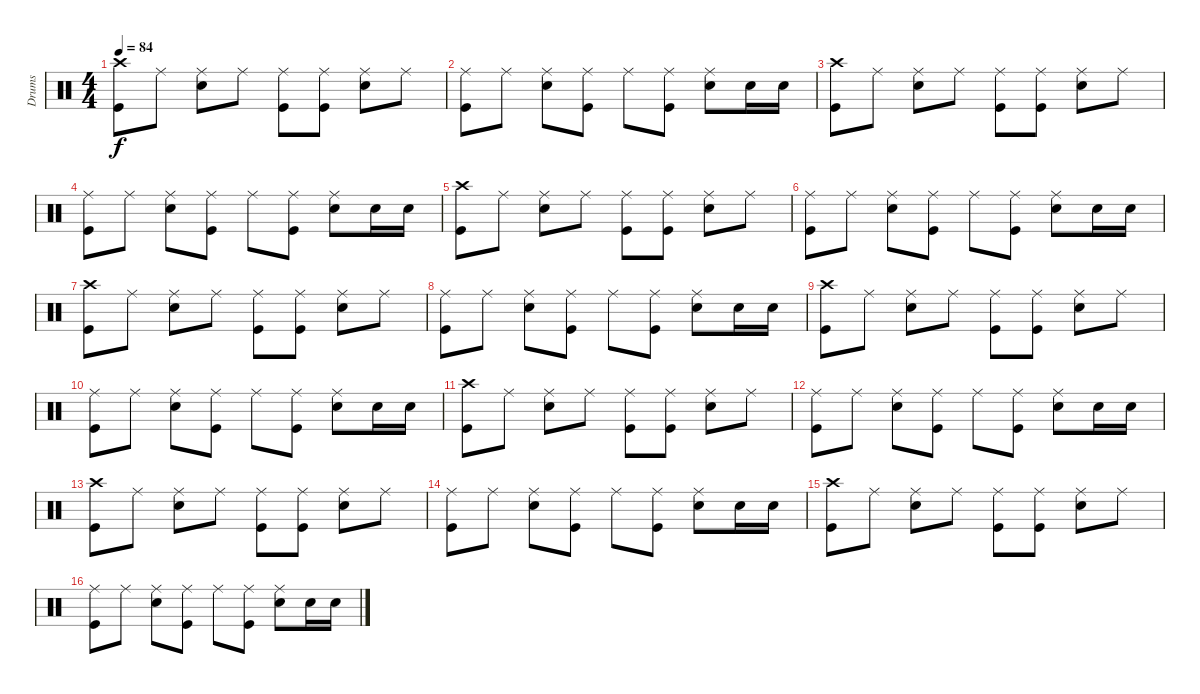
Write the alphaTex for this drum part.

\track ("Drums" "Drums") {instrument percussion}
\staff {score}
\articulation defaults
\ts (4 4)
\tempo 84
\clef neutral
\ks c
("Crash high (hit)" "Kick (hit)").8{dy f} "Ride (middle)".8 ("Ride (middle)" "Snare (hit) 2").8 "Ride (middle)".8 ("Ride (middle)" "Kick (hit)").8 ("Ride (middle)" "Kick (hit)").8 ("Ride (middle)" "Snare (hit) 2").8 "Ride (middle)".8 |
("Ride (middle)" "Kick (hit)").8 "Ride (middle)".8 ("Ride (middle)" "Snare (hit) 2").8 ("Ride (middle)" "Kick (hit)").8 "Ride (middle)".8 ("Ride (middle)" "Kick (hit)").8 ("Ride (middle)" "Snare (hit) 2").8 "Snare (hit) 2".16 "Snare (hit) 2".16 |
("Crash high (hit)" "Kick (hit)").8 "Ride (middle)".8 ("Ride (middle)" "Snare (hit) 2").8 "Ride (middle)".8 ("Ride (middle)" "Kick (hit)").8 ("Ride (middle)" "Kick (hit)").8 ("Ride (middle)" "Snare (hit) 2").8 "Ride (middle)".8 |
("Ride (middle)" "Kick (hit)").8 "Ride (middle)".8 ("Ride (middle)" "Snare (hit) 2").8 ("Ride (middle)" "Kick (hit)").8 "Ride (middle)".8 ("Ride (middle)" "Kick (hit)").8 ("Ride (middle)" "Snare (hit) 2").8 "Snare (hit) 2".16 "Snare (hit) 2".16 |
("Crash high (hit)" "Kick (hit)").8 "Ride (middle)".8 ("Ride (middle)" "Snare (hit) 2").8 "Ride (middle)".8 ("Ride (middle)" "Kick (hit)").8 ("Ride (middle)" "Kick (hit)").8 ("Ride (middle)" "Snare (hit) 2").8 "Ride (middle)".8 |
("Ride (middle)" "Kick (hit)").8 "Ride (middle)".8 ("Ride (middle)" "Snare (hit) 2").8 ("Ride (middle)" "Kick (hit)").8 "Ride (middle)".8 ("Ride (middle)" "Kick (hit)").8 ("Ride (middle)" "Snare (hit) 2").8 "Snare (hit) 2".16 "Snare (hit) 2".16 |
("Crash high (hit)" "Kick (hit)").8 "Ride (middle)".8 ("Ride (middle)" "Snare (hit) 2").8 "Ride (middle)".8 ("Ride (middle)" "Kick (hit)").8 ("Ride (middle)" "Kick (hit)").8 ("Ride (middle)" "Snare (hit) 2").8 "Ride (middle)".8 |
("Ride (middle)" "Kick (hit)").8 "Ride (middle)".8 ("Ride (middle)" "Snare (hit) 2").8 ("Ride (middle)" "Kick (hit)").8 "Ride (middle)".8 ("Ride (middle)" "Kick (hit)").8 ("Ride (middle)" "Snare (hit) 2").8 "Snare (hit) 2".16 "Snare (hit) 2".16 |
("Crash high (hit)" "Kick (hit)").8 "Ride (middle)".8 ("Ride (middle)" "Snare (hit) 2").8 "Ride (middle)".8 ("Ride (middle)" "Kick (hit)").8 ("Ride (middle)" "Kick (hit)").8 ("Ride (middle)" "Snare (hit) 2").8 "Ride (middle)".8 |
("Ride (middle)" "Kick (hit)").8 "Ride (middle)".8 ("Ride (middle)" "Snare (hit) 2").8 ("Ride (middle)" "Kick (hit)").8 "Ride (middle)".8 ("Ride (middle)" "Kick (hit)").8 ("Ride (middle)" "Snare (hit) 2").8 "Snare (hit) 2".16 "Snare (hit) 2".16 |
("Crash high (hit)" "Kick (hit)").8 "Ride (middle)".8 ("Ride (middle)" "Snare (hit) 2").8 "Ride (middle)".8 ("Ride (middle)" "Kick (hit)").8 ("Ride (middle)" "Kick (hit)").8 ("Ride (middle)" "Snare (hit) 2").8 "Ride (middle)".8 |
("Ride (middle)" "Kick (hit)").8 "Ride (middle)".8 ("Ride (middle)" "Snare (hit) 2").8 ("Ride (middle)" "Kick (hit)").8 "Ride (middle)".8 ("Ride (middle)" "Kick (hit)").8 ("Ride (middle)" "Snare (hit) 2").8 "Snare (hit) 2".16 "Snare (hit) 2".16 |
("Crash high (hit)" "Kick (hit)").8 "Ride (middle)".8 ("Ride (middle)" "Snare (hit) 2").8 "Ride (middle)".8 ("Ride (middle)" "Kick (hit)").8 ("Ride (middle)" "Kick (hit)").8 ("Ride (middle)" "Snare (hit) 2").8 "Ride (middle)".8 |
("Ride (middle)" "Kick (hit)").8 "Ride (middle)".8 ("Ride (middle)" "Snare (hit) 2").8 ("Ride (middle)" "Kick (hit)").8 "Ride (middle)".8 ("Ride (middle)" "Kick (hit)").8 ("Ride (middle)" "Snare (hit) 2").8 "Snare (hit) 2".16 "Snare (hit) 2".16 |
("Crash high (hit)" "Kick (hit)").8 "Ride (middle)".8 ("Ride (middle)" "Snare (hit) 2").8 "Ride (middle)".8 ("Ride (middle)" "Kick (hit)").8 ("Ride (middle)" "Kick (hit)").8 ("Ride (middle)" "Snare (hit) 2").8 "Ride (middle)".8 |
("Ride (middle)" "Kick (hit)").8 "Ride (middle)".8 ("Ride (middle)" "Snare (hit) 2").8 ("Ride (middle)" "Kick (hit)").8 "Ride (middle)".8 ("Ride (middle)" "Kick (hit)").8 ("Ride (middle)" "Snare (hit) 2").8 "Snare (hit) 2".16 "Snare (hit) 2".16
